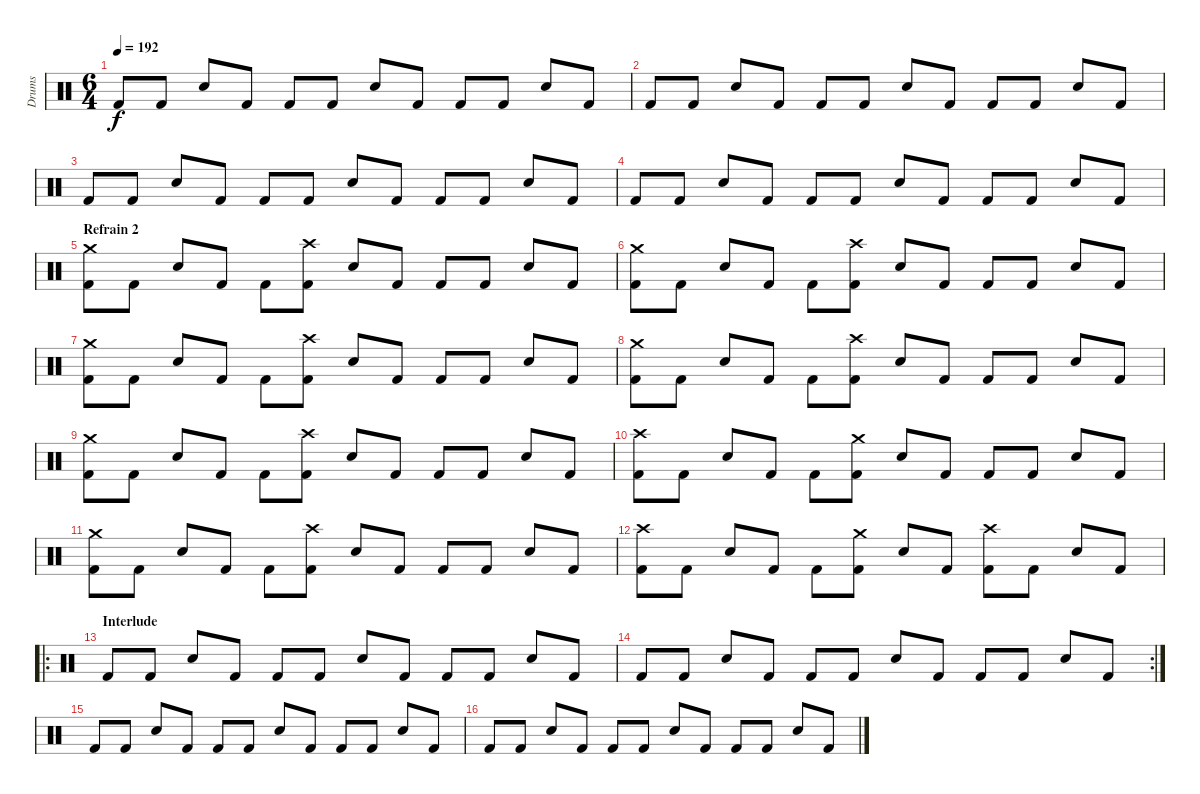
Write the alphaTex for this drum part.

\track ("Drums" "Drums") {instrument percussion}
\staff {score}
\articulation defaults
\ts (6 4)
\tempo 192
\clef neutral
\ks c "Kick (hit) 2".8{dy f} "Kick (hit) 2".8 "Snare (hit) 2".8 "Kick (hit) 2".8 "Kick (hit) 2".8 "Kick (hit) 2".8 "Snare (hit) 2".8 "Kick (hit) 2".8 "Kick (hit) 2".8 "Kick (hit) 2".8 "Snare (hit) 2".8 "Kick (hit) 2".8
|
"Kick (hit) 2".8 "Kick (hit) 2".8 "Snare (hit) 2".8 "Kick (hit) 2".8 "Kick (hit) 2".8 "Kick (hit) 2".8 "Snare (hit) 2".8 "Kick (hit) 2".8 "Kick (hit) 2".8 "Kick (hit) 2".8 "Snare (hit) 2".8 "Kick (hit) 2".8 |
"Kick (hit) 2".8 "Kick (hit) 2".8 "Snare (hit) 2".8 "Kick (hit) 2".8 "Kick (hit) 2".8 "Kick (hit) 2".8 "Snare (hit) 2".8 "Kick (hit) 2".8 "Kick (hit) 2".8 "Kick (hit) 2".8 "Snare (hit) 2".8 "Kick (hit) 2".8 |
"Kick (hit) 2".8 "Kick (hit) 2".8 "Snare (hit) 2".8 "Kick (hit) 2".8 "Kick (hit) 2".8 "Kick (hit) 2".8 "Snare (hit) 2".8 "Kick (hit) 2".8 "Kick (hit) 2".8 "Kick (hit) 2".8 "Snare (hit) 2".8 "Kick (hit) 2".8 |
\section ("" "Refrain 2")
("Crash medium (hit)" "Kick (hit) 2").8 "Kick (hit) 2".8 "Snare (hit) 2".8 "Kick (hit) 2".8 "Kick (hit) 2".8 ("Crash high (hit)" "Kick (hit) 2").8 "Snare (hit) 2".8 "Kick (hit) 2".8 "Kick (hit) 2".8 "Kick (hit) 2".8 "Snare (hit) 2".8 "Kick (hit) 2".8 |
("Crash medium (hit)" "Kick (hit) 2").8 "Kick (hit) 2".8 "Snare (hit) 2".8 "Kick (hit) 2".8 "Kick (hit) 2".8 ("Crash high (hit)" "Kick (hit) 2").8 "Snare (hit) 2".8 "Kick (hit) 2".8 "Kick (hit) 2".8 "Kick (hit) 2".8 "Snare (hit) 2".8 "Kick (hit) 2".8 |
("Crash medium (hit)" "Kick (hit) 2").8 "Kick (hit) 2".8 "Snare (hit) 2".8 "Kick (hit) 2".8 "Kick (hit) 2".8 ("Crash high (hit)" "Kick (hit) 2").8 "Snare (hit) 2".8 "Kick (hit) 2".8 "Kick (hit) 2".8 "Kick (hit) 2".8 "Snare (hit) 2".8 "Kick (hit) 2".8 |
("Crash medium (hit)" "Kick (hit) 2").8 "Kick (hit) 2".8 "Snare (hit) 2".8 "Kick (hit) 2".8 "Kick (hit) 2".8 ("Crash high (hit)" "Kick (hit) 2").8 "Snare (hit) 2".8 "Kick (hit) 2".8 "Kick (hit) 2".8 "Kick (hit) 2".8 "Snare (hit) 2".8 "Kick (hit) 2".8 |
("Crash medium (hit)" "Kick (hit) 2").8 "Kick (hit) 2".8 "Snare (hit) 2".8 "Kick (hit) 2".8 "Kick (hit) 2".8 ("Crash high (hit)" "Kick (hit) 2").8 "Snare (hit) 2".8 "Kick (hit) 2".8 "Kick (hit) 2".8 "Kick (hit) 2".8 "Snare (hit) 2".8 "Kick (hit) 2".8 |
("Crash high (hit)" "Kick (hit) 2").8 "Kick (hit) 2".8 "Snare (hit) 2".8 "Kick (hit) 2".8 "Kick (hit) 2".8 ("Crash medium (hit)" "Kick (hit) 2").8 "Snare (hit) 2".8 "Kick (hit) 2".8 "Kick (hit) 2".8 "Kick (hit) 2".8 "Snare (hit) 2".8 "Kick (hit) 2".8 |
("Crash medium (hit)" "Kick (hit) 2").8 "Kick (hit) 2".8 "Snare (hit) 2".8 "Kick (hit) 2".8 "Kick (hit) 2".8 ("Crash high (hit)" "Kick (hit) 2").8 "Snare (hit) 2".8 "Kick (hit) 2".8 "Kick (hit) 2".8 "Kick (hit) 2".8 "Snare (hit) 2".8 "Kick (hit) 2".8 |
("Crash high (hit)" "Kick (hit) 2").8 "Kick (hit) 2".8 "Snare (hit) 2".8 "Kick (hit) 2".8 "Kick (hit) 2".8 ("Crash medium (hit)" "Kick (hit) 2").8 "Snare (hit) 2".8 "Kick (hit) 2".8 ("Crash high (hit)" "Kick (hit) 2").8 "Kick (hit) 2".8 "Snare (hit) 2".8 "Kick (hit) 2".8 |
\ro
\section ("" "Interlude")
"Kick (hit) 2".8 "Kick (hit) 2".8 "Snare (hit) 2".8 "Kick (hit) 2".8 "Kick (hit) 2".8 "Kick (hit) 2".8 "Snare (hit) 2".8 "Kick (hit) 2".8 "Kick (hit) 2".8 "Kick (hit) 2".8 "Snare (hit) 2".8 "Kick (hit) 2".8 |
\rc 2 "Kick (hit) 2".8 "Kick (hit) 2".8 "Snare (hit) 2".8 "Kick (hit) 2".8 "Kick (hit) 2".8 "Kick (hit) 2".8 "Snare (hit) 2".8 "Kick (hit) 2".8 "Kick (hit) 2".8 "Kick (hit) 2".8 "Snare (hit) 2".8 "Kick (hit) 2".8
|
"Kick (hit) 2".8 "Kick (hit) 2".8 "Snare (hit) 2".8 "Kick (hit) 2".8 "Kick (hit) 2".8 "Kick (hit) 2".8 "Snare (hit) 2".8 "Kick (hit) 2".8 "Kick (hit) 2".8 "Kick (hit) 2".8 "Snare (hit) 2".8 "Kick (hit) 2".8 |
"Kick (hit) 2".8 "Kick (hit) 2".8 "Snare (hit) 2".8 "Kick (hit) 2".8 "Kick (hit) 2".8 "Kick (hit) 2".8 "Snare (hit) 2".8 "Kick (hit) 2".8 "Kick (hit) 2".8 "Kick (hit) 2".8 "Snare (hit) 2".8 "Kick (hit) 2".8
